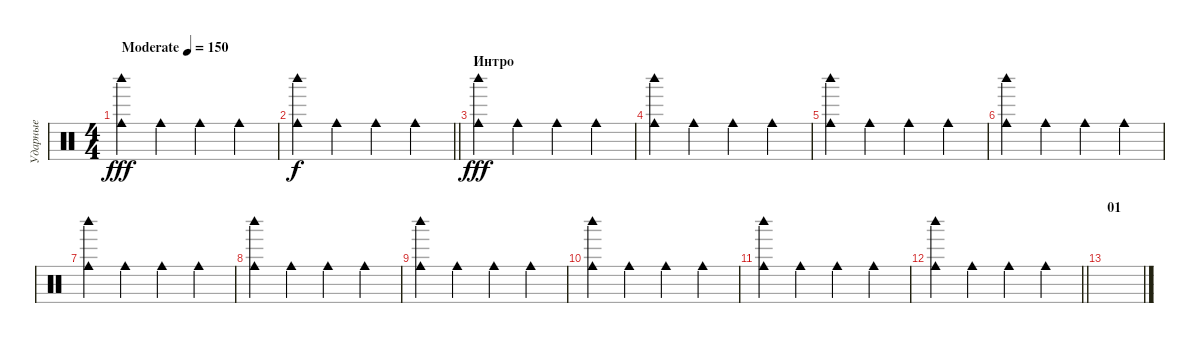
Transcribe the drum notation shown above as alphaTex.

\track ("Ударные" "Ударные") {instrument percussion}
\staff {score}
\articulation defaults
\ts (4 4)
\tempo (150 "Moderate")
\clef neutral
\ks c
("Woodblock high (hit)" "Cowbell medium (hit)").4{dy fff} "Cowbell medium (hit)".4 "Cowbell medium (hit)".4 "Cowbell medium (hit)".4 |
\barLineRight lightlight
("Woodblock high (hit)" "Cowbell medium (hit)").4{dy f} "Cowbell medium (hit)".4 "Cowbell medium (hit)".4 "Cowbell medium (hit)".4 |
\section ("" "Интро")
("Woodblock high (hit)" "Cowbell medium (hit)").4{dy fff} "Cowbell medium (hit)".4 "Cowbell medium (hit)".4 "Cowbell medium (hit)".4 |
("Woodblock high (hit)" "Cowbell medium (hit)").4 "Cowbell medium (hit)".4 "Cowbell medium (hit)".4 "Cowbell medium (hit)".4 |
("Woodblock high (hit)" "Cowbell medium (hit)").4 "Cowbell medium (hit)".4 "Cowbell medium (hit)".4 "Cowbell medium (hit)".4 |
("Woodblock high (hit)" "Cowbell medium (hit)").4 "Cowbell medium (hit)".4 "Cowbell medium (hit)".4 "Cowbell medium (hit)".4 |
("Woodblock high (hit)" "Cowbell medium (hit)").4 "Cowbell medium (hit)".4 "Cowbell medium (hit)".4 "Cowbell medium (hit)".4 |
("Woodblock high (hit)" "Cowbell medium (hit)").4 "Cowbell medium (hit)".4 "Cowbell medium (hit)".4 "Cowbell medium (hit)".4 |
("Woodblock high (hit)" "Cowbell medium (hit)").4 "Cowbell medium (hit)".4 "Cowbell medium (hit)".4 "Cowbell medium (hit)".4 |
("Woodblock high (hit)" "Cowbell medium (hit)").4 "Cowbell medium (hit)".4 "Cowbell medium (hit)".4 "Cowbell medium (hit)".4 |
("Woodblock high (hit)" "Cowbell medium (hit)").4 "Cowbell medium (hit)".4 "Cowbell medium (hit)".4 "Cowbell medium (hit)".4 |
\barLineRight lightlight
("Woodblock high (hit)" "Cowbell medium (hit)").4 "Cowbell medium (hit)".4 "Cowbell medium (hit)".4 "Cowbell medium (hit)".4 |
\section ("" "01")
